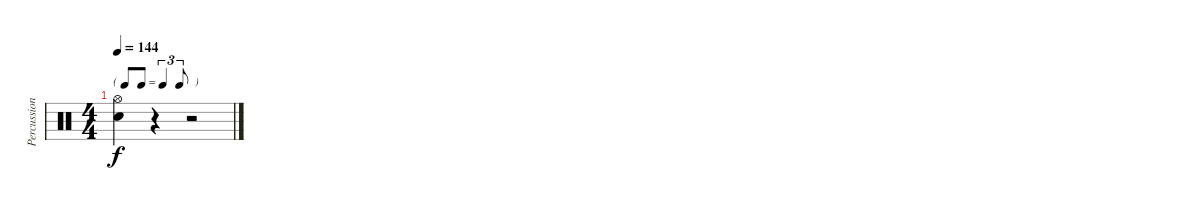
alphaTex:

\track ("Percussions" "Percussion") {instrument percussion}
\staff {score}
\articulation defaults
\ts (4 4)
\tf triplet8th
\tempo 144
\clef neutral
\ks c
("Snare (hit) 2" "Hi-Hat (open)").4{dy f} r.4 r.2
